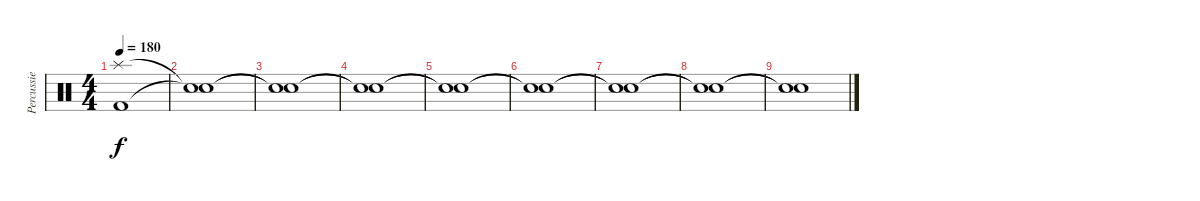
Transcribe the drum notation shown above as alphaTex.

\track ("Percussie" "Percussie") {instrument percussion}
\staff {score}
\articulation defaults
\ts (4 4)
\tempo 180
\clef neutral
\ks c
("Splash (hit)" "Kick (hit) 2").1{dy f} |
("Snare (hit)"{t} "Snare (hit)"{t}).1 |
("Snare (hit)"{t} "Snare (hit)"{t}).1 |
("Snare (hit)"{t} "Snare (hit)"{t}).1 |
("Snare (hit)"{t} "Snare (hit)"{t}).1 |
("Snare (hit)"{t} "Snare (hit)"{t}).1 |
("Snare (hit)"{t} "Snare (hit)"{t}).1 |
("Snare (hit)"{t} "Snare (hit)"{t}).1 |
("Snare (hit)"{t} "Snare (hit)"{t}).1
